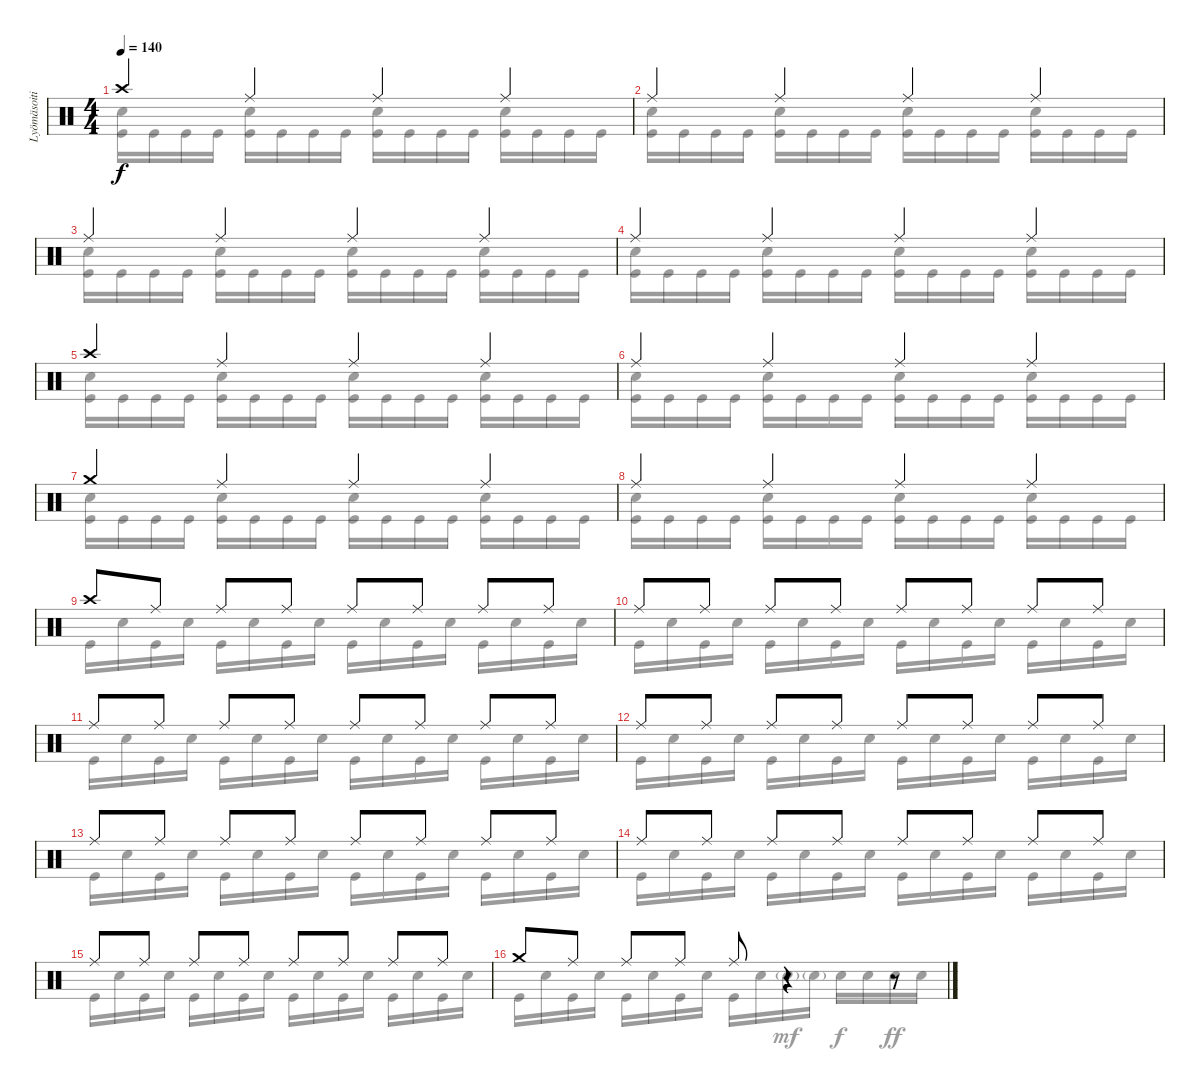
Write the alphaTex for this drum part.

\track ("Lyömäsoitin" "Lyömäsoiti") {instrument percussion}
\staff {score}
\articulation defaults
\voice
\ts (4 4)
\tempo 140
\clef neutral
\ks c "Crash high (hit)".4{dy f} "Ride (middle)".4 "Ride (middle)".4 "Ride (middle)".4
|
"Ride (middle)".4 "Ride (middle)".4 "Ride (middle)".4 "Ride (middle)".4 |
"Ride (middle)".4 "Ride (middle)".4 "Ride (middle)".4 "Ride (middle)".4 |
"Ride (middle)".4 "Ride (middle)".4 "Ride (middle)".4 "Ride (middle)".4 |
"Crash high (hit)".4 "Ride (middle)".4 "Ride (middle)".4 "Ride (middle)".4 |
"Ride (middle)".4 "Ride (middle)".4 "Ride (middle)".4 "Ride (middle)".4 |
"Crash medium (hit)".4 "Ride (middle)".4 "Ride (middle)".4 "Ride (middle)".4 |
"Ride (middle)".4 "Ride (middle)".4 "Ride (middle)".4 "Ride (middle)".4 |
"Crash high (hit)".8 "Ride (middle)".8 "Ride (middle)".8 "Ride (middle)".8 "Ride (middle)".8 "Ride (middle)".8 "Ride (middle)".8 "Ride (middle)".8 |
"Ride (middle)".8 "Ride (middle)".8 "Ride (middle)".8 "Ride (middle)".8 "Ride (middle)".8 "Ride (middle)".8 "Ride (middle)".8 "Ride (middle)".8 |
"Ride (middle)".8 "Ride (middle)".8 "Ride (middle)".8 "Ride (middle)".8 "Ride (middle)".8 "Ride (middle)".8 "Ride (middle)".8 "Ride (middle)".8 |
"Ride (middle)".8 "Ride (middle)".8 "Ride (middle)".8 "Ride (middle)".8 "Ride (middle)".8 "Ride (middle)".8 "Ride (middle)".8 "Ride (middle)".8 |
"Ride (middle)".8 "Ride (middle)".8 "Ride (middle)".8 "Ride (middle)".8 "Ride (middle)".8 "Ride (middle)".8 "Ride (middle)".8 "Ride (middle)".8 |
"Ride (middle)".8 "Ride (middle)".8 "Ride (middle)".8 "Ride (middle)".8 "Ride (middle)".8 "Ride (middle)".8 "Ride (middle)".8 "Ride (middle)".8 |
"Ride (middle)".8 "Ride (middle)".8 "Ride (middle)".8 "Ride (middle)".8 "Ride (middle)".8 "Ride (middle)".8 "Ride (middle)".8 "Ride (middle)".8 |
"Crash medium (hit)".8 "Ride (middle)".8 "Ride (middle)".8 "Ride (middle)".8 "Ride (middle)".8 r.4 r.8
\voice
\clef neutral
\ottava regular
\simile none
\ks c
("Snare (hit) 2" "Kick (hit)").16{dy f} "Kick (hit)".16 "Kick (hit)".16 "Kick (hit)".16 ("Snare (hit) 2" "Kick (hit)").16 "Kick (hit)".16 "Kick (hit)".16 "Kick (hit)".16 ("Snare (hit) 2" "Kick (hit)").16 "Kick (hit)".16 "Kick (hit)".16 "Kick (hit)".16 ("Snare (hit) 2" "Kick (hit)").16 "Kick (hit)".16 "Kick (hit)".16 "Kick (hit)".16 |
("Snare (hit) 2" "Kick (hit)").16 "Kick (hit)".16 "Kick (hit)".16 "Kick (hit)".16 ("Snare (hit) 2" "Kick (hit)").16 "Kick (hit)".16 "Kick (hit)".16 "Kick (hit)".16 ("Snare (hit) 2" "Kick (hit)").16 "Kick (hit)".16 "Kick (hit)".16 "Kick (hit)".16 ("Snare (hit) 2" "Kick (hit)").16 "Kick (hit)".16 "Kick (hit)".16 "Kick (hit)".16 |
("Snare (hit) 2" "Kick (hit)").16 "Kick (hit)".16 "Kick (hit)".16 "Kick (hit)".16 ("Snare (hit) 2" "Kick (hit)").16 "Kick (hit)".16 "Kick (hit)".16 "Kick (hit)".16 ("Snare (hit) 2" "Kick (hit)").16 "Kick (hit)".16 "Kick (hit)".16 "Kick (hit)".16 ("Snare (hit) 2" "Kick (hit)").16 "Kick (hit)".16 "Kick (hit)".16 "Kick (hit)".16 |
("Snare (hit) 2" "Kick (hit)").16 "Kick (hit)".16 "Kick (hit)".16 "Kick (hit)".16 ("Snare (hit) 2" "Kick (hit)").16 "Kick (hit)".16 "Kick (hit)".16 "Kick (hit)".16 ("Snare (hit) 2" "Kick (hit)").16 "Kick (hit)".16 "Kick (hit)".16 "Kick (hit)".16 ("Snare (hit) 2" "Kick (hit)").16 "Kick (hit)".16 "Kick (hit)".16 "Kick (hit)".16 |
("Snare (hit) 2" "Kick (hit)").16 "Kick (hit)".16 "Kick (hit)".16 "Kick (hit)".16 ("Snare (hit) 2" "Kick (hit)").16 "Kick (hit)".16 "Kick (hit)".16 "Kick (hit)".16 ("Snare (hit) 2" "Kick (hit)").16 "Kick (hit)".16 "Kick (hit)".16 "Kick (hit)".16 ("Snare (hit) 2" "Kick (hit)").16 "Kick (hit)".16 "Kick (hit)".16 "Kick (hit)".16 |
("Snare (hit) 2" "Kick (hit)").16 "Kick (hit)".16 "Kick (hit)".16 "Kick (hit)".16 ("Snare (hit) 2" "Kick (hit)").16 "Kick (hit)".16 "Kick (hit)".16 "Kick (hit)".16 ("Snare (hit) 2" "Kick (hit)").16 "Kick (hit)".16 "Kick (hit)".16 "Kick (hit)".16 ("Snare (hit) 2" "Kick (hit)").16 "Kick (hit)".16 "Kick (hit)".16 "Kick (hit)".16 |
("Snare (hit) 2" "Kick (hit)").16 "Kick (hit)".16 "Kick (hit)".16 "Kick (hit)".16 ("Snare (hit) 2" "Kick (hit)").16 "Kick (hit)".16 "Kick (hit)".16 "Kick (hit)".16 ("Snare (hit) 2" "Kick (hit)").16 "Kick (hit)".16 "Kick (hit)".16 "Kick (hit)".16 ("Snare (hit) 2" "Kick (hit)").16 "Kick (hit)".16 "Kick (hit)".16 "Kick (hit)".16 |
("Snare (hit) 2" "Kick (hit)").16 "Kick (hit)".16 "Kick (hit)".16 "Kick (hit)".16 ("Snare (hit) 2" "Kick (hit)").16 "Kick (hit)".16 "Kick (hit)".16 "Kick (hit)".16 ("Snare (hit) 2" "Kick (hit)").16 "Kick (hit)".16 "Kick (hit)".16 "Kick (hit)".16 ("Snare (hit) 2" "Kick (hit)").16 "Kick (hit)".16 "Kick (hit)".16 "Kick (hit)".16 |
"Kick (hit)".16 "Snare (hit) 2".16 "Kick (hit)".16 "Snare (hit) 2".16 "Kick (hit)".16 "Snare (hit) 2".16 "Kick (hit)".16 "Snare (hit) 2".16 "Kick (hit)".16 "Snare (hit) 2".16 "Kick (hit)".16 "Snare (hit) 2".16 "Kick (hit)".16 "Snare (hit) 2".16 "Kick (hit)".16 "Snare (hit) 2".16 |
"Kick (hit)".16 "Snare (hit) 2".16 "Kick (hit)".16 "Snare (hit) 2".16 "Kick (hit)".16 "Snare (hit) 2".16 "Kick (hit)".16 "Snare (hit) 2".16 "Kick (hit)".16 "Snare (hit) 2".16 "Kick (hit)".16 "Snare (hit) 2".16 "Kick (hit)".16 "Snare (hit) 2".16 "Kick (hit)".16 "Snare (hit) 2".16 |
"Kick (hit)".16 "Snare (hit) 2".16 "Kick (hit)".16 "Snare (hit) 2".16 "Kick (hit)".16 "Snare (hit) 2".16 "Kick (hit)".16 "Snare (hit) 2".16 "Kick (hit)".16 "Snare (hit) 2".16 "Kick (hit)".16 "Snare (hit) 2".16 "Kick (hit)".16 "Snare (hit) 2".16 "Kick (hit)".16 "Snare (hit) 2".16 |
"Kick (hit)".16 "Snare (hit) 2".16 "Kick (hit)".16 "Snare (hit) 2".16 "Kick (hit)".16 "Snare (hit) 2".16 "Kick (hit)".16 "Snare (hit) 2".16 "Kick (hit)".16 "Snare (hit) 2".16 "Kick (hit)".16 "Snare (hit) 2".16 "Kick (hit)".16 "Snare (hit) 2".16 "Kick (hit)".16 "Snare (hit) 2".16 |
"Kick (hit)".16 "Snare (hit) 2".16 "Kick (hit)".16 "Snare (hit) 2".16 "Kick (hit)".16 "Snare (hit) 2".16 "Kick (hit)".16 "Snare (hit) 2".16 "Kick (hit)".16 "Snare (hit) 2".16 "Kick (hit)".16 "Snare (hit) 2".16 "Kick (hit)".16 "Snare (hit) 2".16 "Kick (hit)".16 "Snare (hit) 2".16 |
"Kick (hit)".16 "Snare (hit) 2".16 "Kick (hit)".16 "Snare (hit) 2".16 "Kick (hit)".16 "Snare (hit) 2".16 "Kick (hit)".16 "Snare (hit) 2".16 "Kick (hit)".16 "Snare (hit) 2".16 "Kick (hit)".16 "Snare (hit) 2".16 "Kick (hit)".16 "Snare (hit) 2".16 "Kick (hit)".16 "Snare (hit) 2".16 |
"Kick (hit)".16 "Snare (hit) 2".16 "Kick (hit)".16 "Snare (hit) 2".16 "Kick (hit)".16 "Snare (hit) 2".16 "Kick (hit)".16 "Snare (hit) 2".16 "Kick (hit)".16 "Snare (hit) 2".16 "Kick (hit)".16 "Snare (hit) 2".16 "Kick (hit)".16 "Snare (hit) 2".16 "Kick (hit)".16 "Snare (hit) 2".16 |
"Kick (hit)".16 "Snare (hit) 2".16 "Kick (hit)".16 "Snare (hit) 2".16 "Kick (hit)".16 "Snare (hit) 2".16 "Kick (hit)".16 "Snare (hit) 2".16 "Kick (hit)".16 "Snare (hit) 2".16 "Snare (hit) 2"{g}.16{dy mf} "Snare (hit) 2"{g}.16 "Snare (hit) 2".16{dy f} "Snare (hit) 2".16 "Snare (hit) 2".16{dy ff} "Snare (hit) 2".16
